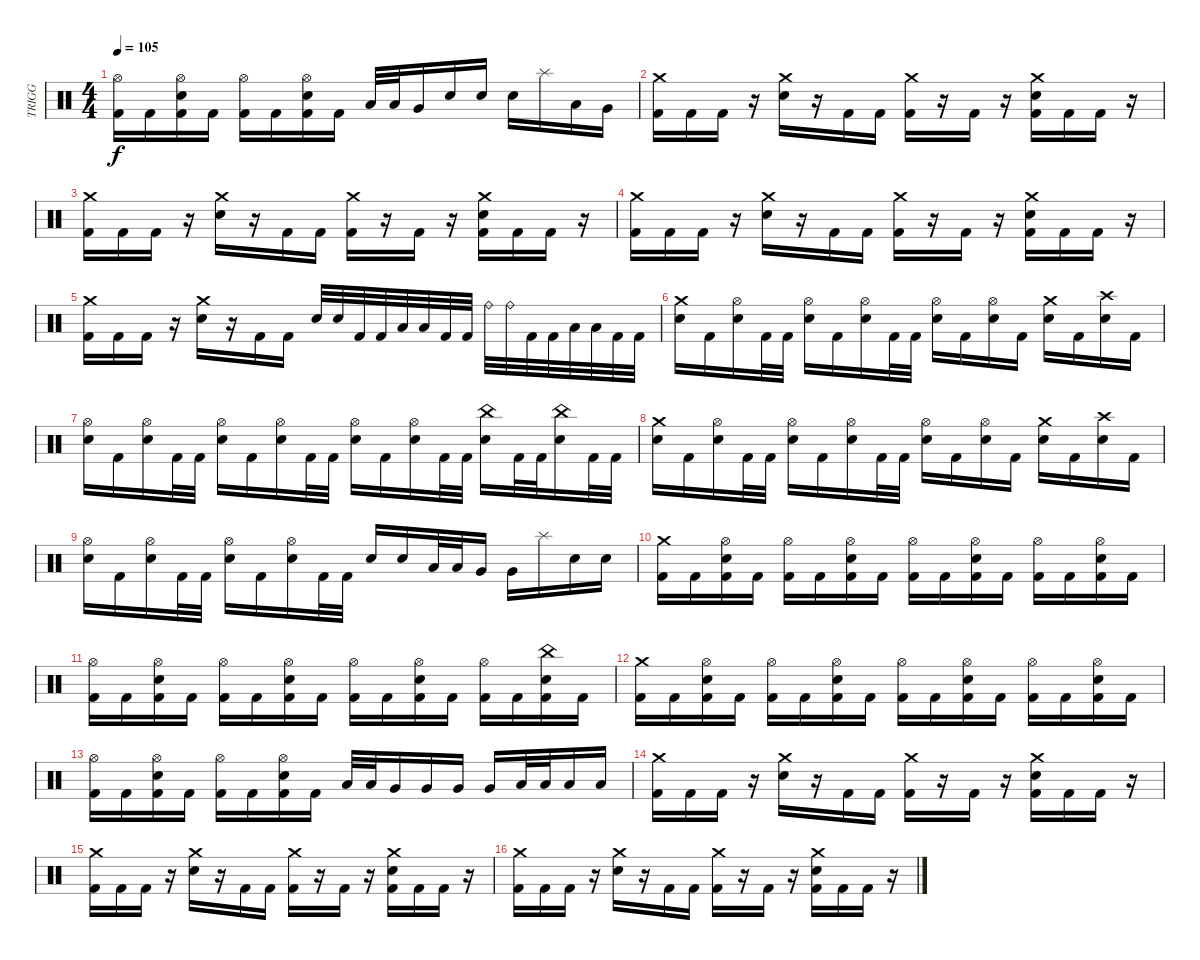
\track ("TRIGG" "TRIGG") {instrument percussion}
\staff {score}
\articulation defaults
\ts (4 4)
\tempo 105
\clef neutral
\ks c
("Hi-Hat (open)" "Kick (hit) 2").16{dy f} "Kick (hit) 2".16 ("Hi-Hat (open)" "Electric Snare (hit)" "Kick (hit) 2").16 "Kick (hit) 2".16 ("Hi-Hat (open)" "Kick (hit) 2").16 "Kick (hit) 2".16 ("Hi-Hat (open)" "Electric Snare (hit)" "Kick (hit) 2").16 "Kick (hit) 2".16 "Low Tom (hit)".32 "Low Tom (hit)".32 "Very Low Tom (hit)".16 "Electric Snare (hit)".16 "Electric Snare (hit)".16 "Electric Snare (hit)".16 "Splash (hit)".16 "Low Tom (hit)".16 "Very Low Tom (hit)".16 |
("Crash medium (hit)" "Kick (hit) 2").16 "Kick (hit) 2".16 "Kick (hit) 2".16 r.16 ("Crash medium (hit)" "Electric Snare (hit)").16 r.16 "Kick (hit) 2".16 "Kick (hit) 2".16 ("Crash medium (hit)" "Kick (hit) 2").16 r.16 "Kick (hit) 2".16 r.16 ("Crash medium (hit)" "Electric Snare (hit)" "Kick (hit) 2").16 "Kick (hit) 2".16 "Kick (hit) 2".16 r.16 |
("Crash medium (hit)" "Kick (hit) 2").16 "Kick (hit) 2".16 "Kick (hit) 2".16 r.16 ("Crash medium (hit)" "Electric Snare (hit)").16 r.16 "Kick (hit) 2".16 "Kick (hit) 2".16 ("Crash medium (hit)" "Kick (hit) 2").16 r.16 "Kick (hit) 2".16 r.16 ("Crash medium (hit)" "Electric Snare (hit)" "Kick (hit) 2").16 "Kick (hit) 2".16 "Kick (hit) 2".16 r.16 |
("Crash medium (hit)" "Kick (hit) 2").16 "Kick (hit) 2".16 "Kick (hit) 2".16 r.16 ("Crash medium (hit)" "Electric Snare (hit)").16 r.16 "Kick (hit) 2".16 "Kick (hit) 2".16 ("Crash medium (hit)" "Kick (hit) 2").16 r.16 "Kick (hit) 2".16 r.16 ("Crash medium (hit)" "Electric Snare (hit)" "Kick (hit) 2").16 "Kick (hit) 2".16 "Kick (hit) 2".16 r.16 |
("Crash medium (hit)" "Kick (hit) 2").16 "Kick (hit) 2".16 "Kick (hit) 2".16 r.16 ("Crash medium (hit)" "Electric Snare (hit)").16 r.16 "Kick (hit) 2".16 "Kick (hit) 2".16 "Electric Snare (hit)".32 "Electric Snare (hit)".32 "Kick (hit) 2".32 "Kick (hit) 2".32 "Low Tom (hit)".32 "Low Tom (hit)".32 "Kick (hit) 2".32 "Kick (hit) 2".32 "Ride (bell)".32 "Ride (bell)".32 "Kick (hit) 2".32 "Kick (hit) 2".32 "Low Floor Tom (hit)".32 "Low Floor Tom (hit)".32 "Kick (hit) 2".32 "Kick (hit) 2".32 |
("Crash medium (hit)" "Electric Snare (hit)").16 "Kick (hit) 2".16 ("Hi-Hat (open)" "Electric Snare (hit)").16 "Kick (hit) 2".32 "Kick (hit) 2".32 ("Hi-Hat (open)" "Electric Snare (hit)").16 "Kick (hit) 2".16 ("Hi-Hat (open)" "Electric Snare (hit)").16 "Kick (hit) 2".32 "Kick (hit) 2".32 ("Hi-Hat (open)" "Electric Snare (hit)").16 "Kick (hit) 2".16 ("Hi-Hat (open)" "Electric Snare (hit)").16 "Kick (hit) 2".16 ("Crash medium (hit)" "Electric Snare (hit)").16 "Kick (hit) 2".16 ("Crash high (hit)" "Electric Snare (hit)").16 "Kick (hit) 2".16 |
("Hi-Hat (open)" "Electric Snare (hit)").16 "Kick (hit) 2".16 ("Hi-Hat (open)" "Electric Snare (hit)").16 "Kick (hit) 2".32 "Kick (hit) 2".32 ("Hi-Hat (open)" "Electric Snare (hit)").16 "Kick (hit) 2".16 ("Hi-Hat (open)" "Electric Snare (hit)").16 "Kick (hit) 2".32 "Kick (hit) 2".32 ("Hi-Hat (open)" "Electric Snare (hit)").16 "Kick (hit) 2".16 ("Hi-Hat (open)" "Electric Snare (hit)").16 "Kick (hit) 2".32 "Kick (hit) 2".32 ("China (hit)" "Electric Snare (hit)").16 "Kick (hit) 2".32 "Kick (hit) 2".32 ("China (hit)" "Electric Snare (hit)").16 "Kick (hit) 2".32 "Kick (hit) 2".32 |
("Crash medium (hit)" "Electric Snare (hit)").16 "Kick (hit) 2".16 ("Hi-Hat (open)" "Electric Snare (hit)").16 "Kick (hit) 2".32 "Kick (hit) 2".32 ("Hi-Hat (open)" "Electric Snare (hit)").16 "Kick (hit) 2".16 ("Hi-Hat (open)" "Electric Snare (hit)").16 "Kick (hit) 2".32 "Kick (hit) 2".32 ("Hi-Hat (open)" "Electric Snare (hit)").16 "Kick (hit) 2".16 ("Hi-Hat (open)" "Electric Snare (hit)").16 "Kick (hit) 2".16 ("Crash medium (hit)" "Electric Snare (hit)").16 "Kick (hit) 2".16 ("Crash high (hit)" "Electric Snare (hit)").16 "Kick (hit) 2".16 |
("Hi-Hat (open)" "Electric Snare (hit)").16 "Kick (hit) 2".16 ("Hi-Hat (open)" "Electric Snare (hit)").16 "Kick (hit) 2".32 "Kick (hit) 2".32 ("Hi-Hat (open)" "Electric Snare (hit)").16 "Kick (hit) 2".16 ("Hi-Hat (open)" "Electric Snare (hit)").16 "Kick (hit) 2".32 "Kick (hit) 2".32 "Electric Snare (hit)".16 "Electric Snare (hit)".16 "Low Tom (hit)".32 "Low Tom (hit)".32 "Very Low Tom (hit)".16 "Very Low Tom (hit)".16 "Splash (hit)".16 "Electric Snare (hit)".16 "Electric Snare (hit)".16 |
("Crash medium (hit)" "Kick (hit) 2").16 "Kick (hit) 2".16 ("Hi-Hat (open)" "Electric Snare (hit)" "Kick (hit) 2").16 "Kick (hit) 2".16 ("Hi-Hat (open)" "Kick (hit) 2").16 "Kick (hit) 2".16 ("Hi-Hat (open)" "Electric Snare (hit)" "Kick (hit) 2").16 "Kick (hit) 2".16 ("Hi-Hat (open)" "Kick (hit) 2").16 "Kick (hit) 2".16 ("Hi-Hat (open)" "Electric Snare (hit)" "Kick (hit) 2").16 "Kick (hit) 2".16 ("Hi-Hat (open)" "Kick (hit) 2").16 "Kick (hit) 2".16 ("Hi-Hat (open)" "Electric Snare (hit)" "Kick (hit) 2").16 "Kick (hit) 2".16 |
("Hi-Hat (open)" "Kick (hit) 2").16 "Kick (hit) 2".16 ("Hi-Hat (open)" "Electric Snare (hit)" "Kick (hit) 2").16 "Kick (hit) 2".16 ("Hi-Hat (open)" "Kick (hit) 2").16 "Kick (hit) 2".16 ("Hi-Hat (open)" "Electric Snare (hit)" "Kick (hit) 2").16 "Kick (hit) 2".16 ("Hi-Hat (open)" "Kick (hit) 2").16 "Kick (hit) 2".16 ("Hi-Hat (open)" "Electric Snare (hit)" "Kick (hit) 2").16 "Kick (hit) 2".16 ("Hi-Hat (open)" "Kick (hit) 2").16 "Kick (hit) 2".16 ("China (hit)" "Electric Snare (hit)" "Kick (hit) 2").16 "Kick (hit) 2".16 |
("Crash medium (hit)" "Kick (hit) 2").16 "Kick (hit) 2".16 ("Hi-Hat (open)" "Electric Snare (hit)" "Kick (hit) 2").16 "Kick (hit) 2".16 ("Hi-Hat (open)" "Kick (hit) 2").16 "Kick (hit) 2".16 ("Hi-Hat (open)" "Electric Snare (hit)" "Kick (hit) 2").16 "Kick (hit) 2".16 ("Hi-Hat (open)" "Kick (hit) 2").16 "Kick (hit) 2".16 ("Hi-Hat (open)" "Electric Snare (hit)" "Kick (hit) 2").16 "Kick (hit) 2".16 ("Hi-Hat (open)" "Kick (hit) 2").16 "Kick (hit) 2".16 ("Hi-Hat (open)" "Electric Snare (hit)" "Kick (hit) 2").16 "Kick (hit) 2".16 |
("Hi-Hat (open)" "Kick (hit) 2").16 "Kick (hit) 2".16 ("Hi-Hat (open)" "Electric Snare (hit)" "Kick (hit) 2").16 "Kick (hit) 2".16 ("Hi-Hat (open)" "Kick (hit) 2").16 "Kick (hit) 2".16 ("Hi-Hat (open)" "Electric Snare (hit)" "Kick (hit) 2").16 "Kick (hit) 2".16 "Low Tom (hit)".32 "Low Tom (hit)".32 "Very Low Tom (hit)".16 "Very Low Tom (hit)".16 "Very Low Tom (hit)".16 "Very Low Tom (hit)".16 "Low Floor Tom (hit)".32 "Low Floor Tom (hit)".32 "Low Floor Tom (hit)".16 "Low Floor Tom (hit)".16 |
("Crash medium (hit)" "Kick (hit) 2").16 "Kick (hit) 2".16 "Kick (hit) 2".16 r.16 ("Crash medium (hit)" "Electric Snare (hit)").16 r.16 "Kick (hit) 2".16 "Kick (hit) 2".16 ("Crash medium (hit)" "Kick (hit) 2").16 r.16 "Kick (hit) 2".16 r.16 ("Crash medium (hit)" "Electric Snare (hit)" "Kick (hit) 2").16 "Kick (hit) 2".16 "Kick (hit) 2".16 r.16 |
("Crash medium (hit)" "Kick (hit) 2").16 "Kick (hit) 2".16 "Kick (hit) 2".16 r.16 ("Crash medium (hit)" "Electric Snare (hit)").16 r.16 "Kick (hit) 2".16 "Kick (hit) 2".16 ("Crash medium (hit)" "Kick (hit) 2").16 r.16 "Kick (hit) 2".16 r.16 ("Crash medium (hit)" "Electric Snare (hit)" "Kick (hit) 2").16 "Kick (hit) 2".16 "Kick (hit) 2".16 r.16 |
("Crash medium (hit)" "Kick (hit) 2").16 "Kick (hit) 2".16 "Kick (hit) 2".16 r.16 ("Crash medium (hit)" "Electric Snare (hit)").16 r.16 "Kick (hit) 2".16 "Kick (hit) 2".16 ("Crash medium (hit)" "Kick (hit) 2").16 r.16 "Kick (hit) 2".16 r.16 ("Crash medium (hit)" "Electric Snare (hit)" "Kick (hit) 2").16 "Kick (hit) 2".16 "Kick (hit) 2".16 r.16
